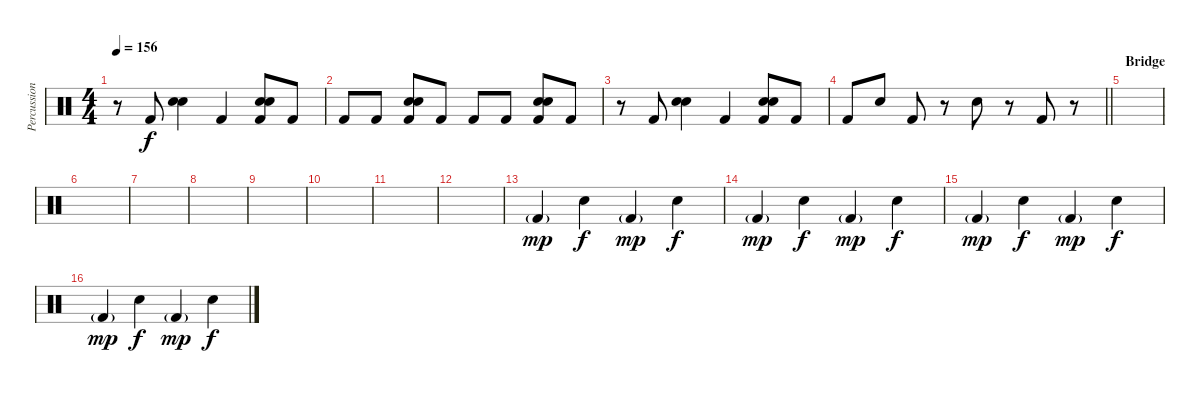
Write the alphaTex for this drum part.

\track ("Percussion" "Percussion") {instrument percussion}
\staff {score}
\articulation defaults
\ts (4 4)
\tempo 156
\clef neutral
\ks c
r.8{dy f} "Kick (hit) 2".8 ("Hand Clap (hit)" "Electric Snare (hit)").4 "Kick (hit) 2".4 ("Hand Clap (hit)" "Electric Snare (hit)" "Kick (hit) 2").8 "Kick (hit) 2".8 |
"Kick (hit) 2".8 "Kick (hit) 2".8 ("Hand Clap (hit)" "Electric Snare (hit)" "Kick (hit) 2").8 "Kick (hit) 2".8 "Kick (hit) 2".8 "Kick (hit) 2".8 ("Hand Clap (hit)" "Electric Snare (hit)" "Kick (hit) 2").8 "Kick (hit) 2".8 |
r.8 "Kick (hit) 2".8 ("Hand Clap (hit)" "Electric Snare (hit)").4 "Kick (hit) 2".4 ("Hand Clap (hit)" "Electric Snare (hit)" "Kick (hit) 2").8 "Kick (hit) 2".8 |
\barLineRight lightlight "Kick (hit) 2".8 "Electric Snare (hit)".8 "Kick (hit) 2".8
r.8 "Electric Snare (hit)".8 r.8 "Kick (hit) 2".8 r.8 |
\section ("" "Bridge")
|
|
|
|
|
|
|
|
"Kick (hit) 2"{g}.4{dy mp} "Hand Clap (hit)".4{dy f} "Kick (hit) 2"{g}.4{dy mp} "Hand Clap (hit)".4{dy f} |
"Kick (hit) 2"{g}.4{dy mp} "Hand Clap (hit)".4{dy f} "Kick (hit) 2"{g}.4{dy mp} "Hand Clap (hit)".4{dy f} |
"Kick (hit) 2"{g}.4{dy mp} "Hand Clap (hit)".4{dy f} "Kick (hit) 2"{g}.4{dy mp} "Hand Clap (hit)".4{dy f} |
"Kick (hit) 2"{g}.4{dy mp} "Hand Clap (hit)".4{dy f} "Kick (hit) 2"{g}.4{dy mp} "Hand Clap (hit)".4{dy f}
